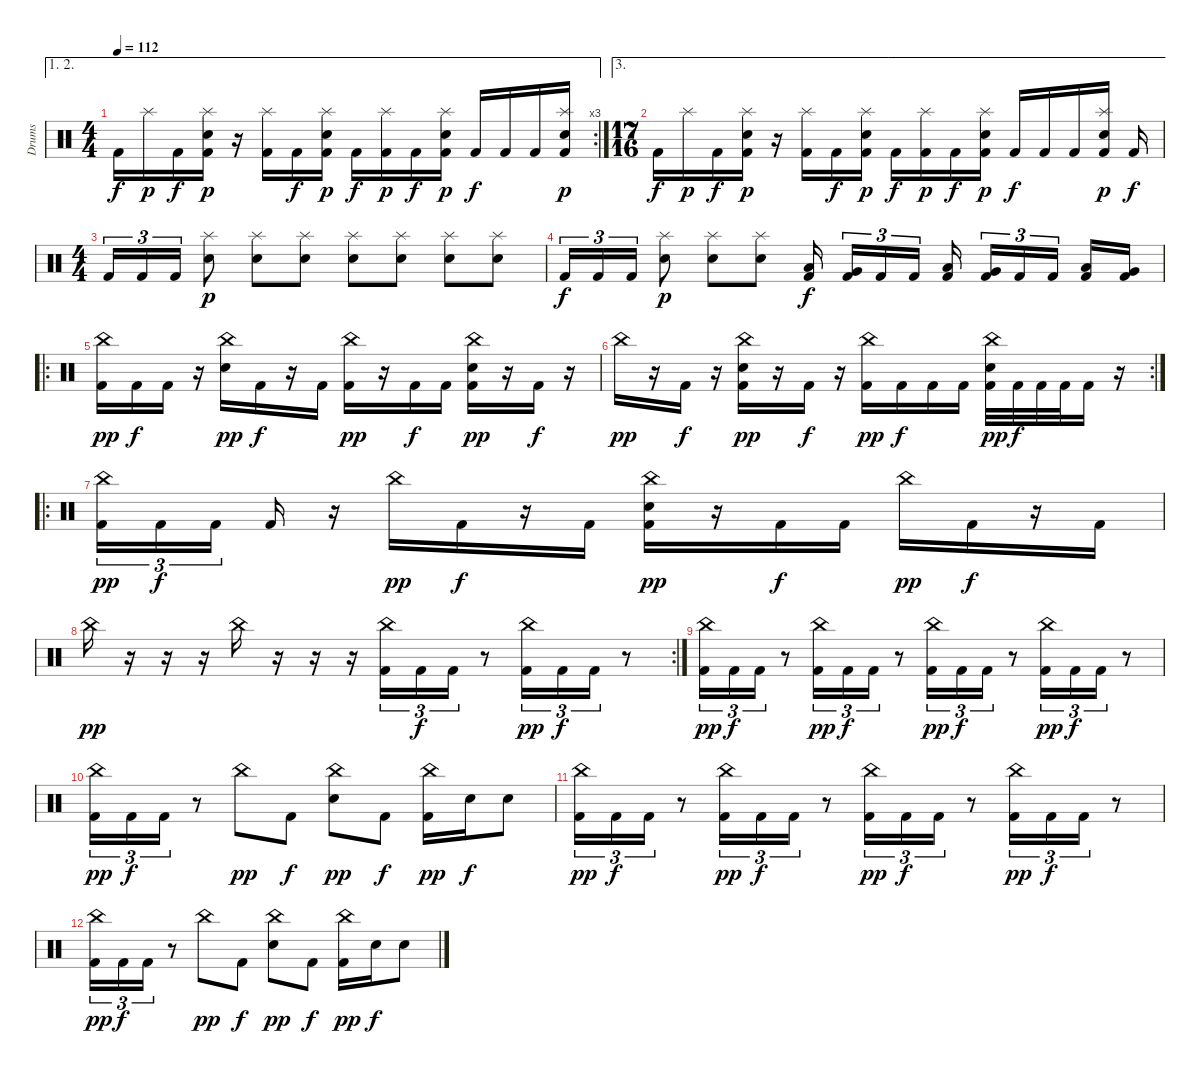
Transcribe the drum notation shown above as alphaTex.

\track ("Drums" "Drums") {instrument percussion}
\staff
\articulation defaults
\ae (1 2)
\rc 3
\ts (4 4)
\tempo 112
\clef neutral
\ks c "Kick (hit) 2".16{dy f} "Splash (hit)".16{dy p} "Kick (hit) 2".16{dy f}
("Splash (hit)" "Snare (hit) 2" "Kick (hit) 2").16{dy p} r.16 ("Splash (hit)" "Kick (hit) 2").16 "Kick (hit) 2".16{dy f} ("Splash (hit)" "Snare (hit) 2" "Kick (hit) 2").16{dy p} "Kick (hit) 2".16{dy f} ("Splash (hit)" "Kick (hit) 2").16{dy p} "Kick (hit) 2".16{dy f} ("Splash (hit)" "Snare (hit) 2" "Kick (hit) 2").16{dy p} "Kick (hit) 2".16{dy f} "Kick (hit) 2".16 "Kick (hit) 2".16 ("Splash (hit)" "Snare (hit) 2" "Kick (hit) 2").16{dy p} |
\ae 3
\ts (17 16)
"Kick (hit) 2".16{dy f} "Splash (hit)".16{dy p} "Kick (hit) 2".16{dy f} ("Splash (hit)" "Snare (hit) 2" "Kick (hit) 2").16{dy p} r.16 ("Splash (hit)" "Kick (hit) 2").16 "Kick (hit) 2".16{dy f} ("Splash (hit)" "Snare (hit) 2" "Kick (hit) 2").16{dy p} "Kick (hit) 2".16{dy f} ("Splash (hit)" "Kick (hit) 2").16{dy p} "Kick (hit) 2".16{dy f} ("Splash (hit)" "Snare (hit) 2" "Kick (hit) 2").16{dy p} "Kick (hit) 2".16{dy f} "Kick (hit) 2".16 "Kick (hit) 2".16 ("Splash (hit)" "Snare (hit) 2" "Kick (hit) 2").16{dy p} "Kick (hit) 2".16{dy f} |
\ts (4 4)
"Kick (hit) 2".16{tu (3 2)} "Kick (hit) 2".16{tu (3 2)} "Kick (hit) 2".16{tu (3 2)} ("Splash (hit)" "Snare (hit) 2").8{dy p} ("Splash (hit)" "Snare (hit) 2").8 ("Splash (hit)" "Snare (hit) 2").8 ("Splash (hit)" "Snare (hit) 2").8 ("Splash (hit)" "Snare (hit) 2").8 ("Splash (hit)" "Snare (hit) 2").8 ("Splash (hit)" "Snare (hit) 2").8 |
"Kick (hit) 2".16{tu (3 2) dy f} "Kick (hit) 2".16{tu (3 2)} "Kick (hit) 2".16{tu (3 2)} ("Splash (hit)" "Snare (hit) 2").8{dy p} ("Splash (hit)" "Snare (hit) 2").8 ("Splash (hit)" "Snare (hit) 2").8 ("Low Floor Tom (hit)" "Kick (hit) 2").16{dy f beam splitsecondary} ("Very Low Tom (hit)" "Kick (hit) 2").16{tu (3 2)} "Kick (hit) 2".16{tu (3 2)} "Kick (hit) 2".16{tu (3 2) beam splitsecondary} ("Low Floor Tom (hit)" "Kick (hit) 2").16 ("Very Low Tom (hit)" "Kick (hit) 2").16{tu (3 2)} "Kick (hit) 2".16{tu (3 2)} "Kick (hit) 2".16{tu (3 2) beam splitsecondary} ("Low Floor Tom (hit)" "Kick (hit) 2").16 ("Very Low Tom (hit)" "Kick (hit) 2").16 |
\ro
("China (hit)" "Kick (hit) 2").16{dy pp} "Kick (hit) 2".16{dy f} "Kick (hit) 2".16 r.16 ("China (hit)" "Snare (hit) 2").16{dy pp} "Kick (hit) 2".16{dy f} r.16 "Kick (hit) 2".16 ("China (hit)" "Kick (hit) 2").16{dy pp} r.16 "Kick (hit) 2".16{dy f} "Kick (hit) 2".16 ("China (hit)" "Snare (hit) 2" "Kick (hit) 2").16{dy pp} r.16 "Kick (hit) 2".16{dy f} r.16 |
\rc 2 "China (hit)".16{dy pp}
r.16 "Kick (hit) 2".16{dy f} r.16 ("China (hit)" "Snare (hit) 2" "Kick (hit) 2").16{dy pp} r.16 "Kick (hit) 2".16{dy f} r.16 ("China (hit)" "Kick (hit) 2").16{dy pp} "Kick (hit) 2".16{dy f} "Kick (hit) 2".16 "Kick (hit) 2".16 ("China (hit)" "Snare (hit) 2" "Kick (hit) 2").32{dy pp} "Kick (hit) 2".32{dy f} "Kick (hit) 2".32 "Kick (hit) 2".32 "Kick (hit) 2".16 r.16 |
\ro
("China (hit)" "Kick (hit) 2").16{tu (3 2) dy pp} "Kick (hit) 2".16{tu (3 2) dy f} "Kick (hit) 2".16{tu (3 2) beam splitsecondary} "Kick (hit) 2".16 r.16 "China (hit)".16{dy pp} "Kick (hit) 2".16{dy f} r.16 "Kick (hit) 2".16 ("China (hit)" "Snare (hit) 2" "Kick (hit) 2").16{dy pp} r.16 "Kick (hit) 2".16{dy f} "Kick (hit) 2".16 "China (hit)".16{dy pp} "Kick (hit) 2".16{dy f} r.16 "Kick (hit) 2".16 |
\rc 2 "China (hit)".16{dy pp}
r.16 r.16 r.16 "China (hit)".16 r.16 r.16 r.16 ("China (hit)" "Kick (hit) 2").16{tu (3 2)} "Kick (hit) 2".16{tu (3 2) dy f} "Kick (hit) 2".16{tu (3 2)} r.8 ("China (hit)" "Kick (hit) 2").16{tu (3 2) dy pp} "Kick (hit) 2".16{tu (3 2) dy f} "Kick (hit) 2".16{tu (3 2)} r.8 |
("China (hit)" "Kick (hit) 2").16{tu (3 2) dy pp} "Kick (hit) 2".16{tu (3 2) dy f} "Kick (hit) 2".16{tu (3 2)} r.8 ("China (hit)" "Kick (hit) 2").16{tu (3 2) dy pp} "Kick (hit) 2".16{tu (3 2) dy f} "Kick (hit) 2".16{tu (3 2)} r.8 ("China (hit)" "Kick (hit) 2").16{tu (3 2) dy pp} "Kick (hit) 2".16{tu (3 2) dy f} "Kick (hit) 2".16{tu (3 2)} r.8 ("China (hit)" "Kick (hit) 2").16{tu (3 2) dy pp} "Kick (hit) 2".16{tu (3 2) dy f} "Kick (hit) 2".16{tu (3 2)} r.8 |
("China (hit)" "Kick (hit) 2").16{tu (3 2) dy pp} "Kick (hit) 2".16{tu (3 2) dy f} "Kick (hit) 2".16{tu (3 2)} r.8 "China (hit)".8{dy pp} "Kick (hit) 2".8{dy f} ("China (hit)" "Snare (hit) 2").8{dy pp} "Kick (hit) 2".8{dy f} ("China (hit)" "Kick (hit) 2").16{dy pp} "Snare (hit) 2".16{dy f} "Snare (hit) 2".8 |
("China (hit)" "Kick (hit) 2").16{tu (3 2) dy pp} "Kick (hit) 2".16{tu (3 2) dy f} "Kick (hit) 2".16{tu (3 2)} r.8 ("China (hit)" "Kick (hit) 2").16{tu (3 2) dy pp} "Kick (hit) 2".16{tu (3 2) dy f} "Kick (hit) 2".16{tu (3 2)} r.8 ("China (hit)" "Kick (hit) 2").16{tu (3 2) dy pp} "Kick (hit) 2".16{tu (3 2) dy f} "Kick (hit) 2".16{tu (3 2)} r.8 ("China (hit)" "Kick (hit) 2").16{tu (3 2) dy pp} "Kick (hit) 2".16{tu (3 2) dy f} "Kick (hit) 2".16{tu (3 2)} r.8 |
("China (hit)" "Kick (hit) 2").16{tu (3 2) dy pp} "Kick (hit) 2".16{tu (3 2) dy f} "Kick (hit) 2".16{tu (3 2)} r.8 "China (hit)".8{dy pp} "Kick (hit) 2".8{dy f} ("China (hit)" "Snare (hit) 2").8{dy pp} "Kick (hit) 2".8{dy f} ("China (hit)" "Kick (hit) 2").16{dy pp} "Snare (hit) 2".16{dy f} "Snare (hit) 2".8
